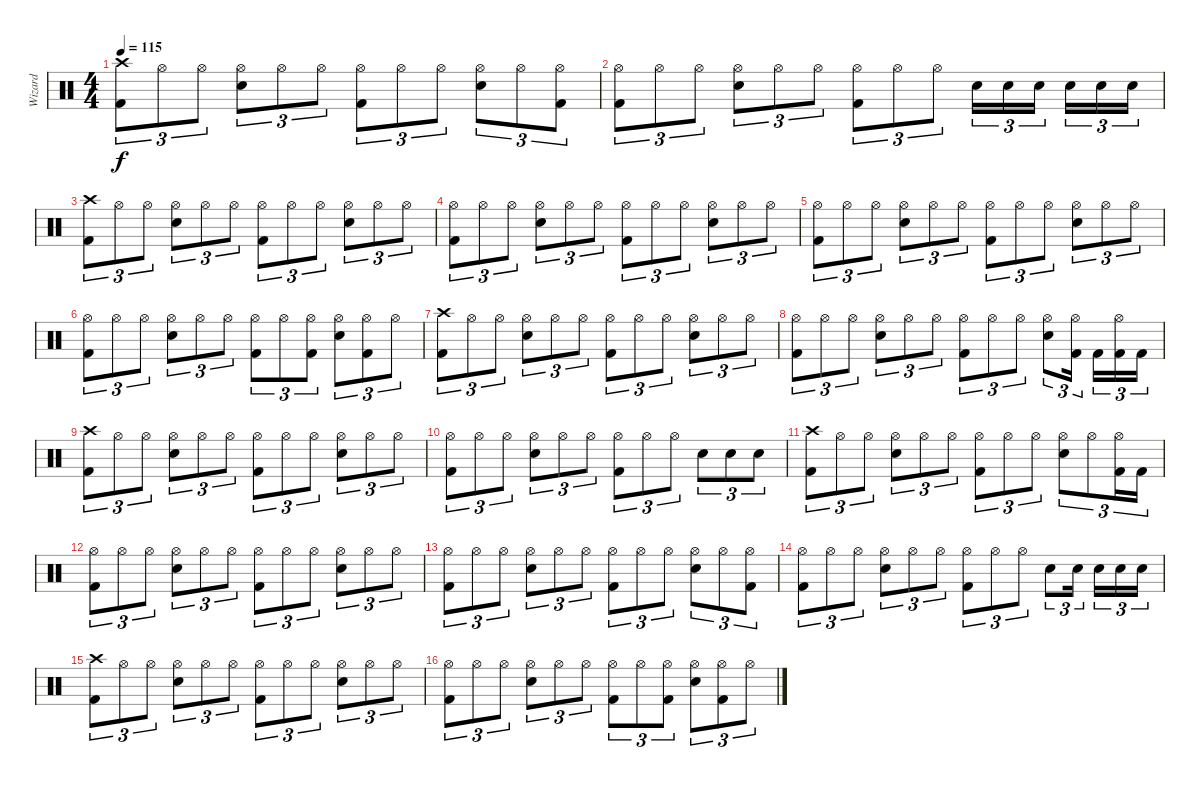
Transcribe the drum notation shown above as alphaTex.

\track ("Wizard" "Wizard") {instrument percussion}
\staff {score}
\articulation defaults
\ts (4 4)
\tempo 115
\clef neutral
\ks c
("Crash high (hit)" "Kick (hit) 2").8{tu (3 2) dy f} "Hi-Hat (open)".8{tu (3 2)} "Hi-Hat (open)".8{tu (3 2)} ("Hi-Hat (open)" "Snare (hit) 2").8{tu (3 2)} "Hi-Hat (open)".8{tu (3 2)} "Hi-Hat (open)".8{tu (3 2)} ("Hi-Hat (open)" "Kick (hit) 2").8{tu (3 2)} "Hi-Hat (open)".8{tu (3 2)} "Hi-Hat (open)".8{tu (3 2)} ("Hi-Hat (open)" "Snare (hit) 2").8{tu (3 2)} "Hi-Hat (open)".8{tu (3 2)} ("Hi-Hat (open)" "Kick (hit) 2").8{tu (3 2)} |
("Hi-Hat (open)" "Kick (hit) 2").8{tu (3 2)} "Hi-Hat (open)".8{tu (3 2)} "Hi-Hat (open)".8{tu (3 2)} ("Hi-Hat (open)" "Snare (hit) 2").8{tu (3 2)} "Hi-Hat (open)".8{tu (3 2)} "Hi-Hat (open)".8{tu (3 2)} ("Hi-Hat (open)" "Kick (hit) 2").8{tu (3 2)} "Hi-Hat (open)".8{tu (3 2)} "Hi-Hat (open)".8{tu (3 2)} "Snare (hit) 2".16{tu (3 2)} "Snare (hit) 2".16{tu (3 2)} "Snare (hit) 2".16{tu (3 2) beam splitsecondary} "Snare (hit) 2".16{tu (3 2)} "Snare (hit) 2".16{tu (3 2)} "Snare (hit) 2".16{tu (3 2)} |
("Crash high (hit)" "Kick (hit) 2").8{tu (3 2)} "Hi-Hat (open)".8{tu (3 2)} "Hi-Hat (open)".8{tu (3 2)} ("Hi-Hat (open)" "Snare (hit) 2").8{tu (3 2)} "Hi-Hat (open)".8{tu (3 2)} "Hi-Hat (open)".8{tu (3 2)} ("Hi-Hat (open)" "Kick (hit) 2").8{tu (3 2)} "Hi-Hat (open)".8{tu (3 2)} "Hi-Hat (open)".8{tu (3 2)} ("Hi-Hat (open)" "Snare (hit) 2").8{tu (3 2)} "Hi-Hat (open)".8{tu (3 2)} "Hi-Hat (open)".8{tu (3 2)} |
("Hi-Hat (open)" "Kick (hit) 2").8{tu (3 2)} "Hi-Hat (open)".8{tu (3 2)} "Hi-Hat (open)".8{tu (3 2)} ("Hi-Hat (open)" "Snare (hit) 2").8{tu (3 2)} "Hi-Hat (open)".8{tu (3 2)} "Hi-Hat (open)".8{tu (3 2)} ("Hi-Hat (open)" "Kick (hit) 2").8{tu (3 2)} "Hi-Hat (open)".8{tu (3 2)} "Hi-Hat (open)".8{tu (3 2)} ("Hi-Hat (open)" "Snare (hit) 2").8{tu (3 2)} "Hi-Hat (open)".8{tu (3 2)} "Hi-Hat (open)".8{tu (3 2)} |
("Hi-Hat (open)" "Kick (hit) 2").8{tu (3 2)} "Hi-Hat (open)".8{tu (3 2)} "Hi-Hat (open)".8{tu (3 2)} ("Hi-Hat (open)" "Snare (hit) 2").8{tu (3 2)} "Hi-Hat (open)".8{tu (3 2)} "Hi-Hat (open)".8{tu (3 2)} ("Hi-Hat (open)" "Kick (hit) 2").8{tu (3 2)} "Hi-Hat (open)".8{tu (3 2)} "Hi-Hat (open)".8{tu (3 2)} ("Hi-Hat (open)" "Snare (hit) 2").8{tu (3 2)} "Hi-Hat (open)".8{tu (3 2)} "Hi-Hat (open)".8{tu (3 2)} |
("Hi-Hat (open)" "Kick (hit) 2").8{tu (3 2)} "Hi-Hat (open)".8{tu (3 2)} "Hi-Hat (open)".8{tu (3 2)} ("Hi-Hat (open)" "Snare (hit) 2").8{tu (3 2)} "Hi-Hat (open)".8{tu (3 2)} "Hi-Hat (open)".8{tu (3 2)} ("Hi-Hat (open)" "Kick (hit) 2").8{tu (3 2)} "Hi-Hat (open)".8{tu (3 2)} ("Hi-Hat (open)" "Kick (hit) 2").8{tu (3 2)} ("Hi-Hat (open)" "Snare (hit) 2").8{tu (3 2)} ("Hi-Hat (open)" "Kick (hit) 2").8{tu (3 2)} "Hi-Hat (open)".8{tu (3 2)} |
("Crash high (hit)" "Kick (hit) 2").8{tu (3 2)} "Hi-Hat (open)".8{tu (3 2)} "Hi-Hat (open)".8{tu (3 2)} ("Hi-Hat (open)" "Snare (hit) 2").8{tu (3 2)} "Hi-Hat (open)".8{tu (3 2)} "Hi-Hat (open)".8{tu (3 2)} ("Hi-Hat (open)" "Kick (hit) 2").8{tu (3 2)} "Hi-Hat (open)".8{tu (3 2)} "Hi-Hat (open)".8{tu (3 2)} ("Hi-Hat (open)" "Snare (hit) 2").8{tu (3 2)} "Hi-Hat (open)".8{tu (3 2)} "Hi-Hat (open)".8{tu (3 2)} |
("Hi-Hat (open)" "Kick (hit) 2").8{tu (3 2)} "Hi-Hat (open)".8{tu (3 2)} "Hi-Hat (open)".8{tu (3 2)} ("Hi-Hat (open)" "Snare (hit) 2").8{tu (3 2)} "Hi-Hat (open)".8{tu (3 2)} "Hi-Hat (open)".8{tu (3 2)} ("Hi-Hat (open)" "Kick (hit) 2").8{tu (3 2)} "Hi-Hat (open)".8{tu (3 2)} "Hi-Hat (open)".8{tu (3 2)} ("Hi-Hat (open)" "Snare (hit) 2").8{tu (3 2)} ("Hi-Hat (open)" "Kick (hit) 2").16{tu (3 2) beam splitsecondary} "Kick (hit) 2".16{tu (3 2)} ("Hi-Hat (open)" "Kick (hit) 2").16{tu (3 2)} "Kick (hit) 2".16{tu (3 2)} |
("Crash high (hit)" "Kick (hit) 2").8{tu (3 2)} "Hi-Hat (open)".8{tu (3 2)} "Hi-Hat (open)".8{tu (3 2)} ("Hi-Hat (open)" "Snare (hit) 2").8{tu (3 2)} "Hi-Hat (open)".8{tu (3 2)} "Hi-Hat (open)".8{tu (3 2)} ("Hi-Hat (open)" "Kick (hit) 2").8{tu (3 2)} "Hi-Hat (open)".8{tu (3 2)} "Hi-Hat (open)".8{tu (3 2)} ("Hi-Hat (open)" "Snare (hit) 2").8{tu (3 2)} "Hi-Hat (open)".8{tu (3 2)} "Hi-Hat (open)".8{tu (3 2)} |
("Hi-Hat (open)" "Kick (hit) 2").8{tu (3 2)} "Hi-Hat (open)".8{tu (3 2)} "Hi-Hat (open)".8{tu (3 2)} ("Hi-Hat (open)" "Snare (hit) 2").8{tu (3 2)} "Hi-Hat (open)".8{tu (3 2)} "Hi-Hat (open)".8{tu (3 2)} ("Hi-Hat (open)" "Kick (hit) 2").8{tu (3 2)} "Hi-Hat (open)".8{tu (3 2)} "Hi-Hat (open)".8{tu (3 2)} "Snare (hit) 2".8{tu (3 2)} "Snare (hit) 2".8{tu (3 2)} "Snare (hit) 2".8{tu (3 2)} |
("Crash high (hit)" "Kick (hit) 2").8{tu (3 2)} "Hi-Hat (open)".8{tu (3 2)} "Hi-Hat (open)".8{tu (3 2)} ("Hi-Hat (open)" "Snare (hit) 2").8{tu (3 2)} "Hi-Hat (open)".8{tu (3 2)} "Hi-Hat (open)".8{tu (3 2)} ("Hi-Hat (open)" "Kick (hit) 2").8{tu (3 2)} "Hi-Hat (open)".8{tu (3 2)} "Hi-Hat (open)".8{tu (3 2)} ("Hi-Hat (open)" "Snare (hit) 2").8{tu (3 2)} "Hi-Hat (open)".8{tu (3 2)} ("Hi-Hat (open)" "Kick (hit) 2").16{tu (3 2)} "Kick (hit) 2".16{tu (3 2)} |
("Hi-Hat (open)" "Kick (hit) 2").8{tu (3 2)} "Hi-Hat (open)".8{tu (3 2)} "Hi-Hat (open)".8{tu (3 2)} ("Hi-Hat (open)" "Snare (hit) 2").8{tu (3 2)} "Hi-Hat (open)".8{tu (3 2)} "Hi-Hat (open)".8{tu (3 2)} ("Hi-Hat (open)" "Kick (hit) 2").8{tu (3 2)} "Hi-Hat (open)".8{tu (3 2)} "Hi-Hat (open)".8{tu (3 2)} ("Hi-Hat (open)" "Snare (hit) 2").8{tu (3 2)} "Hi-Hat (open)".8{tu (3 2)} "Hi-Hat (open)".8{tu (3 2)} |
("Hi-Hat (open)" "Kick (hit) 2").8{tu (3 2)} "Hi-Hat (open)".8{tu (3 2)} "Hi-Hat (open)".8{tu (3 2)} ("Hi-Hat (open)" "Snare (hit) 2").8{tu (3 2)} "Hi-Hat (open)".8{tu (3 2)} "Hi-Hat (open)".8{tu (3 2)} ("Hi-Hat (open)" "Kick (hit) 2").8{tu (3 2)} "Hi-Hat (open)".8{tu (3 2)} "Hi-Hat (open)".8{tu (3 2)} ("Hi-Hat (open)" "Snare (hit) 2").8{tu (3 2)} "Hi-Hat (open)".8{tu (3 2)} ("Hi-Hat (open)" "Kick (hit) 2").8{tu (3 2)} |
("Hi-Hat (open)" "Kick (hit) 2").8{tu (3 2)} "Hi-Hat (open)".8{tu (3 2)} "Hi-Hat (open)".8{tu (3 2)} ("Hi-Hat (open)" "Snare (hit) 2").8{tu (3 2)} "Hi-Hat (open)".8{tu (3 2)} "Hi-Hat (open)".8{tu (3 2)} ("Hi-Hat (open)" "Kick (hit) 2").8{tu (3 2)} "Hi-Hat (open)".8{tu (3 2)} "Hi-Hat (open)".8{tu (3 2)} "Snare (hit) 2".8{tu (3 2)} "Snare (hit) 2".16{tu (3 2) beam splitsecondary} "Snare (hit) 2".16{tu (3 2)} "Snare (hit) 2".16{tu (3 2)} "Snare (hit) 2".16{tu (3 2)} |
("Crash high (hit)" "Kick (hit) 2").8{tu (3 2)} "Hi-Hat (open)".8{tu (3 2)} "Hi-Hat (open)".8{tu (3 2)} ("Hi-Hat (open)" "Snare (hit) 2").8{tu (3 2)} "Hi-Hat (open)".8{tu (3 2)} "Hi-Hat (open)".8{tu (3 2)} ("Hi-Hat (open)" "Kick (hit) 2").8{tu (3 2)} "Hi-Hat (open)".8{tu (3 2)} "Hi-Hat (open)".8{tu (3 2)} ("Hi-Hat (open)" "Snare (hit) 2").8{tu (3 2)} "Hi-Hat (open)".8{tu (3 2)} "Hi-Hat (open)".8{tu (3 2)} |
("Hi-Hat (open)" "Kick (hit) 2").8{tu (3 2)} "Hi-Hat (open)".8{tu (3 2)} "Hi-Hat (open)".8{tu (3 2)} ("Hi-Hat (open)" "Snare (hit) 2").8{tu (3 2)} "Hi-Hat (open)".8{tu (3 2)} "Hi-Hat (open)".8{tu (3 2)} ("Hi-Hat (open)" "Kick (hit) 2").8{tu (3 2)} "Hi-Hat (open)".8{tu (3 2)} ("Hi-Hat (open)" "Kick (hit) 2").8{tu (3 2)} ("Hi-Hat (open)" "Snare (hit) 2").8{tu (3 2)} ("Hi-Hat (open)" "Kick (hit) 2").8{tu (3 2)} "Hi-Hat (open)".8{tu (3 2)}
